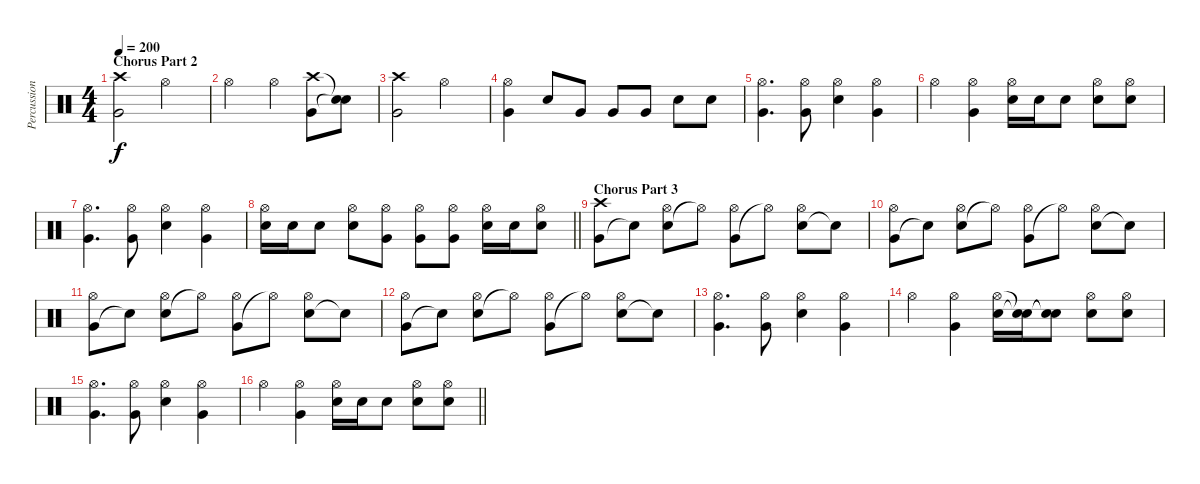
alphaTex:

\track ("Percussion" "Percussion") {instrument percussion}
\staff {score}
\articulation defaults
\ts (4 4)
\section ("" "Chorus Part 2")
\tempo 200
\clef neutral
\ks c
("Very Low Tom (hit)" "Crash high (hit)").2{dy f} "Hi-Hat (open)".2 |
"Hi-Hat (open)".2 "Hi-Hat (open)".4 ("Very Low Tom (hit)" "Crash high (hit)").8 ("Snare (hit)"{t} "Snare (hit)"{t}).8 |
("Very Low Tom (hit)" "Crash high (hit)").2 "Hi-Hat (open)".2 |
("Very Low Tom (hit)" "Hi-Hat (open)").4 "Electric Snare (hit)".8 "Very Low Tom (hit)".8 "Very Low Tom (hit)".8 "Very Low Tom (hit)".8 "Electric Snare (hit)".8 "Electric Snare (hit)".8 |
("Very Low Tom (hit)" "Hi-Hat (open)").4{d} ("Very Low Tom (hit)" "Hi-Hat (open)").8 ("Snare (hit) 2" "Hi-Hat (open)").4 ("Very Low Tom (hit)" "Hi-Hat (open)").4 |
"Hi-Hat (open)".4 ("Very Low Tom (hit)" "Hi-Hat (open)").4 ("Electric Snare (hit)" "Hi-Hat (open)").16 "Electric Snare (hit)".16 "Electric Snare (hit)".8 ("Snare (hit) 2" "Hi-Hat (open)").8 ("Snare (hit) 2" "Hi-Hat (open)").8 |
("Very Low Tom (hit)" "Hi-Hat (open)").4{d} ("Very Low Tom (hit)" "Hi-Hat (open)").8 ("Snare (hit) 2" "Hi-Hat (open)").4 ("Very Low Tom (hit)" "Hi-Hat (open)").4 |
\barLineRight lightlight
("Electric Snare (hit)" "Hi-Hat (open)").16 "Electric Snare (hit)".16 "Electric Snare (hit)".8 ("Snare (hit) 2" "Hi-Hat (open)").8 ("Very Low Tom (hit)" "Hi-Hat (open)").8 ("Very Low Tom (hit)" "Hi-Hat (open)").8 ("Very Low Tom (hit)" "Hi-Hat (open)").8 ("Snare (hit) 2" "Hi-Hat (open)").16 "Snare (hit) 2".16 ("Snare (hit) 2" "Hi-Hat (open)").8 |
\section ("" "Chorus Part 3")
("Very Low Tom (hit)" "Crash high (hit)").8 "Snare (hit)"{t}.8 ("Snare (hit) 2" "Hi-Hat (open)").8 "Hi-Hat (open)"{t}.8 ("Very Low Tom (hit)" "Hi-Hat (open)").8 "Hi-Hat (open)"{t}.8 ("Snare (hit) 2" "Hi-Hat (open)").8 "Snare (hit)"{t}.8 |
("Very Low Tom (hit)" "Hi-Hat (open)").8 "Snare (hit)"{t}.8 ("Snare (hit) 2" "Hi-Hat (open)").8 "Hi-Hat (open)"{t}.8 ("Very Low Tom (hit)" "Hi-Hat (open)").8 "Hi-Hat (open)"{t}.8 ("Snare (hit) 2" "Hi-Hat (open)").8 "Snare (hit)"{t}.8 |
("Very Low Tom (hit)" "Hi-Hat (open)").8 "Snare (hit)"{t}.8 ("Snare (hit) 2" "Hi-Hat (open)").8 "Hi-Hat (open)"{t}.8 ("Very Low Tom (hit)" "Hi-Hat (open)").8 "Hi-Hat (open)"{t}.8 ("Snare (hit) 2" "Hi-Hat (open)").8 "Snare (hit)"{t}.8 |
("Very Low Tom (hit)" "Hi-Hat (open)").8 "Snare (hit)"{t}.8 ("Snare (hit) 2" "Hi-Hat (open)").8 "Hi-Hat (open)"{t}.8 ("Very Low Tom (hit)" "Hi-Hat (open)").8 "Hi-Hat (open)"{t}.8 ("Snare (hit) 2" "Hi-Hat (open)").8 "Snare (hit)"{t}.8 |
("Very Low Tom (hit)" "Hi-Hat (open)").4{d} ("Very Low Tom (hit)" "Hi-Hat (open)").8 ("Snare (hit) 2" "Hi-Hat (open)").4 ("Very Low Tom (hit)" "Hi-Hat (open)").4 |
"Hi-Hat (open)".4 ("Very Low Tom (hit)" "Hi-Hat (open)").4 ("Snare (hit) 2" "Hi-Hat (open)").16 ("Snare (hit)"{t} "Snare (hit)"{t}).16 ("Snare (hit)"{t} "Snare (hit)"{t}).8 ("Snare (hit) 2" "Hi-Hat (open)").8 ("Snare (hit) 2" "Hi-Hat (open)").8 |
("Very Low Tom (hit)" "Hi-Hat (open)").4{d} ("Very Low Tom (hit)" "Hi-Hat (open)").8 ("Snare (hit) 2" "Hi-Hat (open)").4 ("Very Low Tom (hit)" "Hi-Hat (open)").4 |
\barLineRight lightlight "Hi-Hat (open)".4
("Very Low Tom (hit)" "Hi-Hat (open)").4 ("Electric Snare (hit)" "Hi-Hat (open)").16 "Electric Snare (hit)".16 "Electric Snare (hit)".8 ("Snare (hit) 2" "Hi-Hat (open)").8 ("Snare (hit) 2" "Hi-Hat (open)").8
